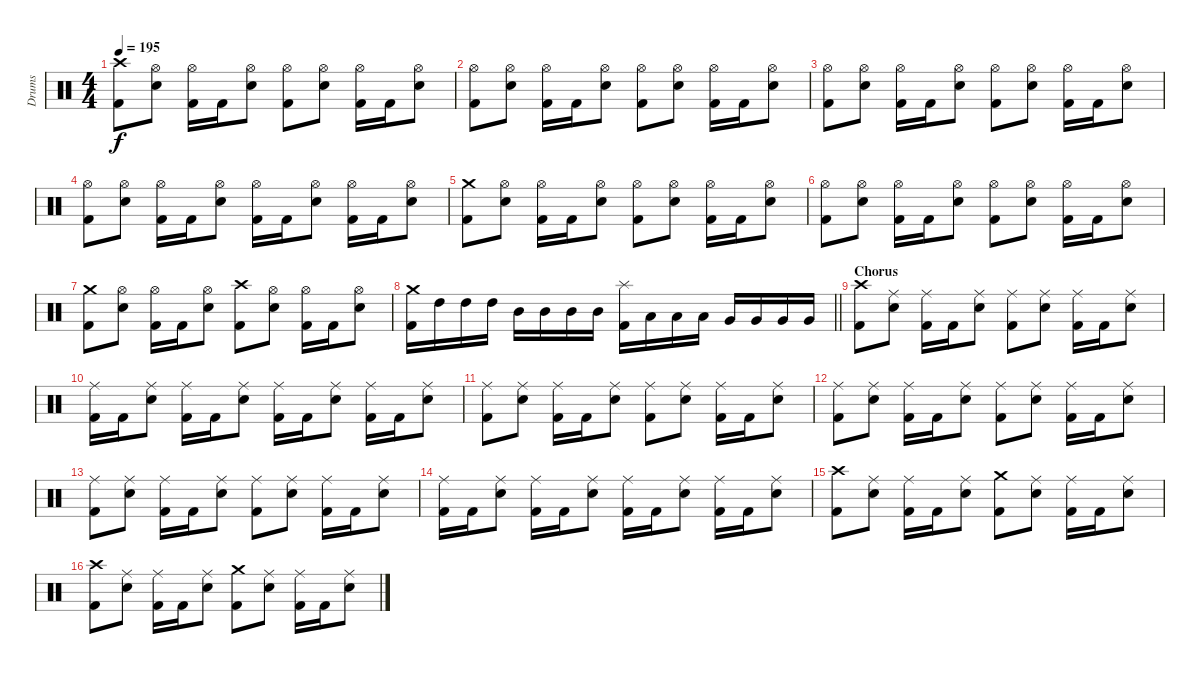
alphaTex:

\track ("Drums" "Drums") {instrument percussion}
\staff {score}
\articulation defaults
\ts (4 4)
\tempo 195
\clef neutral
\ks c
("Crash high (hit)" "Kick (hit) 2").8{dy f} ("Hi-Hat (open)" "Electric Snare (hit)").8 ("Hi-Hat (open)" "Kick (hit) 2").16 "Kick (hit) 2".16 ("Hi-Hat (open)" "Electric Snare (hit)").8 ("Hi-Hat (open)" "Kick (hit) 2").8 ("Hi-Hat (open)" "Electric Snare (hit)").8 ("Hi-Hat (open)" "Kick (hit) 2").16 "Kick (hit) 2".16 ("Hi-Hat (open)" "Electric Snare (hit)").8 |
("Hi-Hat (open)" "Kick (hit) 2").8 ("Hi-Hat (open)" "Electric Snare (hit)").8 ("Hi-Hat (open)" "Kick (hit) 2").16 "Kick (hit) 2".16 ("Hi-Hat (open)" "Electric Snare (hit)").8 ("Hi-Hat (open)" "Kick (hit) 2").8 ("Hi-Hat (open)" "Electric Snare (hit)").8 ("Hi-Hat (open)" "Kick (hit) 2").16 "Kick (hit) 2".16 ("Hi-Hat (open)" "Electric Snare (hit)").8 |
("Hi-Hat (open)" "Kick (hit) 2").8 ("Hi-Hat (open)" "Electric Snare (hit)").8 ("Hi-Hat (open)" "Kick (hit) 2").16 "Kick (hit) 2".16 ("Hi-Hat (open)" "Electric Snare (hit)").8 ("Hi-Hat (open)" "Kick (hit) 2").8 ("Hi-Hat (open)" "Electric Snare (hit)").8 ("Hi-Hat (open)" "Kick (hit) 2").16 "Kick (hit) 2".16 ("Hi-Hat (open)" "Electric Snare (hit)").8 |
("Hi-Hat (open)" "Kick (hit) 2").8 ("Hi-Hat (open)" "Electric Snare (hit)").8 ("Hi-Hat (open)" "Kick (hit) 2").16 "Kick (hit) 2".16 ("Hi-Hat (open)" "Electric Snare (hit)").8 ("Hi-Hat (open)" "Kick (hit) 2").16 "Kick (hit) 2".16 ("Hi-Hat (open)" "Electric Snare (hit)").8 ("Hi-Hat (open)" "Kick (hit) 2").16 "Kick (hit) 2".16 ("Hi-Hat (open)" "Electric Snare (hit)").8 |
("Crash medium (hit)" "Kick (hit) 2").8 ("Hi-Hat (open)" "Electric Snare (hit)").8 ("Hi-Hat (open)" "Kick (hit) 2").16 "Kick (hit) 2".16 ("Hi-Hat (open)" "Electric Snare (hit)").8 ("Hi-Hat (open)" "Kick (hit) 2").8 ("Hi-Hat (open)" "Electric Snare (hit)").8 ("Hi-Hat (open)" "Kick (hit) 2").16 "Kick (hit) 2".16 ("Hi-Hat (open)" "Electric Snare (hit)").8 |
("Hi-Hat (open)" "Kick (hit) 2").8 ("Hi-Hat (open)" "Electric Snare (hit)").8 ("Hi-Hat (open)" "Kick (hit) 2").16 "Kick (hit) 2".16 ("Hi-Hat (open)" "Electric Snare (hit)").8 ("Hi-Hat (open)" "Kick (hit) 2").8 ("Hi-Hat (open)" "Electric Snare (hit)").8 ("Hi-Hat (open)" "Kick (hit) 2").16 "Kick (hit) 2".16 ("Hi-Hat (open)" "Electric Snare (hit)").8 |
("Crash medium (hit)" "Kick (hit) 2").8 ("Hi-Hat (open)" "Electric Snare (hit)").8 ("Hi-Hat (open)" "Kick (hit) 2").16 "Kick (hit) 2".16 ("Hi-Hat (open)" "Electric Snare (hit)").8 ("Crash high (hit)" "Kick (hit) 2").8 ("Hi-Hat (open)" "Electric Snare (hit)").8 ("Hi-Hat (open)" "Kick (hit) 2").16 "Kick (hit) 2".16 ("Hi-Hat (open)" "Electric Snare (hit)").8 |
\barLineRight lightlight
("Crash medium (hit)" "Kick (hit) 2").16 "High Tom (hit)".16 "High Tom (hit)".16 "High Tom (hit)".16 "Mid Tom (hit)".16 "Mid Tom (hit)".16 "Mid Tom (hit)".16 "Mid Tom (hit)".16 ("Splash (hit)" "Kick (hit) 2").16 "Low Tom (hit)".16 "Low Tom (hit)".16 "Low Tom (hit)".16 "Very Low Tom (hit)".16 "Very Low Tom (hit)".16 "Very Low Tom (hit)".16 "Very Low Tom (hit)".16 |
\section ("" "Chorus")
("Crash high (hit)" "Kick (hit) 2").8 ("Ride (middle)" "Electric Snare (hit)").8 ("Ride (middle)" "Kick (hit) 2").16 "Kick (hit) 2".16 ("Ride (middle)" "Electric Snare (hit)").8 ("Ride (middle)" "Kick (hit) 2").8 ("Ride (middle)" "Electric Snare (hit)").8 ("Ride (middle)" "Kick (hit) 2").16 "Kick (hit) 2".16 ("Ride (middle)" "Electric Snare (hit)").8 |
("Ride (middle)" "Kick (hit) 2").16 "Kick (hit) 2".16 ("Ride (middle)" "Electric Snare (hit)").8 ("Ride (middle)" "Kick (hit) 2").16 "Kick (hit) 2".16 ("Ride (middle)" "Electric Snare (hit)").8 ("Ride (middle)" "Kick (hit) 2").16 "Kick (hit) 2".16 ("Ride (middle)" "Electric Snare (hit)").8 ("Ride (middle)" "Kick (hit) 2").16 "Kick (hit) 2".16 ("Ride (middle)" "Electric Snare (hit)").8 |
("Ride (middle)" "Kick (hit) 2").8 ("Ride (middle)" "Electric Snare (hit)").8 ("Ride (middle)" "Kick (hit) 2").16 "Kick (hit) 2".16 ("Ride (middle)" "Electric Snare (hit)").8 ("Ride (middle)" "Kick (hit) 2").8 ("Ride (middle)" "Electric Snare (hit)").8 ("Ride (middle)" "Kick (hit) 2").16 "Kick (hit) 2".16 ("Ride (middle)" "Electric Snare (hit)").8 |
("Ride (middle)" "Kick (hit) 2").8 ("Ride (middle)" "Electric Snare (hit)").8 ("Ride (middle)" "Kick (hit) 2").16 "Kick (hit) 2".16 ("Ride (middle)" "Electric Snare (hit)").8 ("Ride (middle)" "Kick (hit) 2").8 ("Ride (middle)" "Electric Snare (hit)").8 ("Ride (middle)" "Kick (hit) 2").16 "Kick (hit) 2".16 ("Ride (middle)" "Electric Snare (hit)").8 |
("Ride (middle)" "Kick (hit) 2").8 ("Ride (middle)" "Electric Snare (hit)").8 ("Ride (middle)" "Kick (hit) 2").16 "Kick (hit) 2".16 ("Ride (middle)" "Electric Snare (hit)").8 ("Ride (middle)" "Kick (hit) 2").8 ("Ride (middle)" "Electric Snare (hit)").8 ("Ride (middle)" "Kick (hit) 2").16 "Kick (hit) 2".16 ("Ride (middle)" "Electric Snare (hit)").8 |
("Ride (middle)" "Kick (hit) 2").16 "Kick (hit) 2".16 ("Ride (middle)" "Electric Snare (hit)").8 ("Ride (middle)" "Kick (hit) 2").16 "Kick (hit) 2".16 ("Ride (middle)" "Electric Snare (hit)").8 ("Ride (middle)" "Kick (hit) 2").16 "Kick (hit) 2".16 ("Ride (middle)" "Electric Snare (hit)").8 ("Ride (middle)" "Kick (hit) 2").16 "Kick (hit) 2".16 ("Ride (middle)" "Electric Snare (hit)").8 |
("Crash high (hit)" "Kick (hit) 2").8 ("Ride (middle)" "Electric Snare (hit)").8 ("Ride (middle)" "Kick (hit) 2").16 "Kick (hit) 2".16 ("Ride (middle)" "Electric Snare (hit)").8 ("Crash medium (hit)" "Kick (hit) 2").8 ("Ride (middle)" "Electric Snare (hit)").8 ("Ride (middle)" "Kick (hit) 2").16 "Kick (hit) 2".16 ("Ride (middle)" "Electric Snare (hit)").8 |
("Crash high (hit)" "Kick (hit) 2").8 ("Ride (middle)" "Electric Snare (hit)").8 ("Ride (middle)" "Kick (hit) 2").16 "Kick (hit) 2".16 ("Ride (middle)" "Electric Snare (hit)").8 ("Crash medium (hit)" "Kick (hit) 2").8 ("Ride (middle)" "Electric Snare (hit)").8 ("Ride (middle)" "Kick (hit) 2").16 "Kick (hit) 2".16 ("Ride (middle)" "Electric Snare (hit)").8
